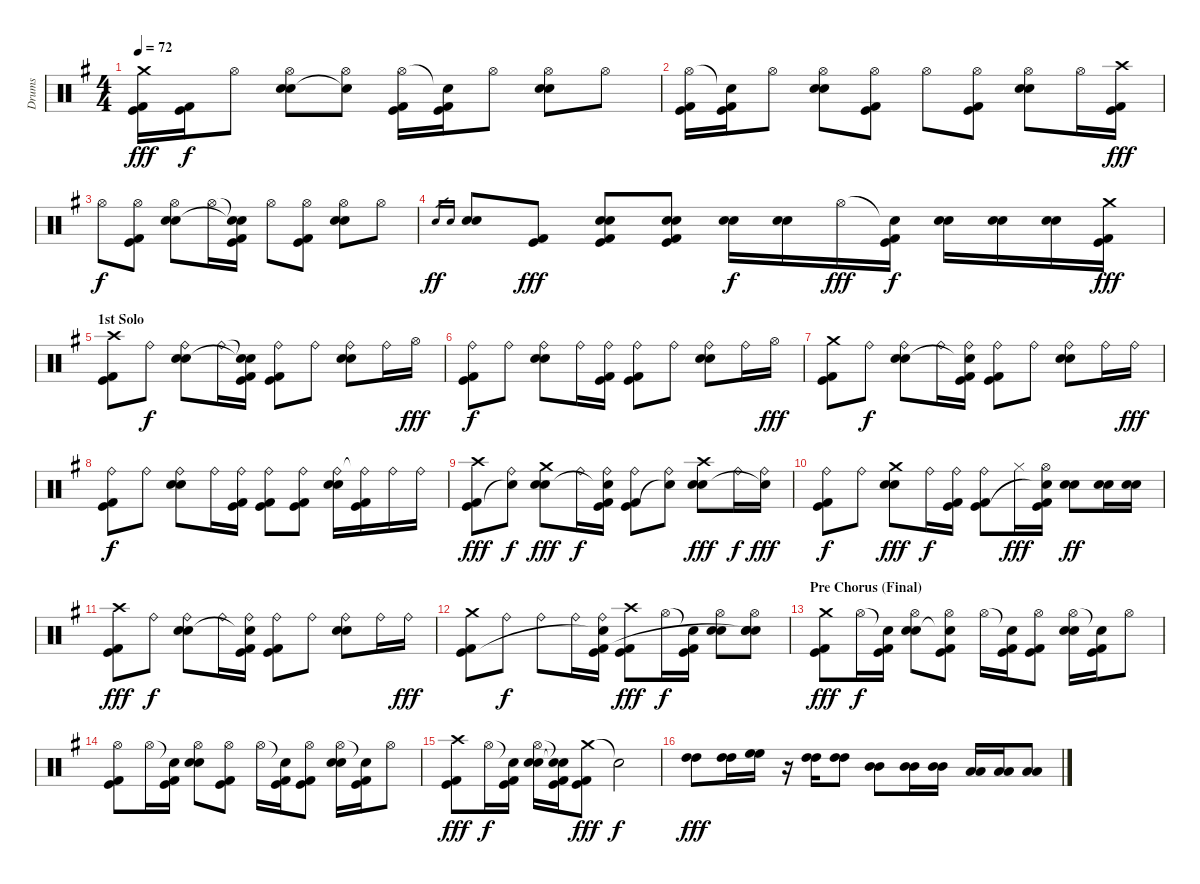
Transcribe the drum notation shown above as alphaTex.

\track ("Drums" "Drums") {instrument percussion}
\staff {score}
\articulation defaults
\ts (4 4)
\tempo 72
\clef neutral
\ks g
("Crash medium (hit)" "Kick (hit)" "Kick (hit) 2").16{dy fff} ("Kick (hit)" "Kick (hit) 2").16{dy f} "Hi-Hat (open)".8 ("Hi-Hat (open)" "Electric Snare (hit)" "Snare (hit) 2").8 ("Hi-Hat (open)" "Snare (hit)"{t}).8 ("Hi-Hat (open)" "Kick (hit)" "Kick (hit) 2").16 ("Snare (hit)"{t} "Kick (hit)" "Kick (hit) 2").16 "Hi-Hat (open)".8 ("Hi-Hat (open)" "Electric Snare (hit)" "Snare (hit) 2").8 "Hi-Hat (open)".8 |
("Hi-Hat (open)" "Kick (hit)" "Kick (hit) 2").16 ("Snare (hit)"{t} "Kick (hit)" "Kick (hit) 2").16 "Hi-Hat (open)".8 ("Hi-Hat (open)" "Electric Snare (hit)" "Snare (hit) 2").8 ("Hi-Hat (open)" "Kick (hit)" "Kick (hit) 2").8 "Hi-Hat (open)".8 ("Hi-Hat (open)" "Kick (hit)" "Kick (hit) 2").8 ("Hi-Hat (open)" "Electric Snare (hit)" "Snare (hit) 2").8 "Hi-Hat (open)".16 ("Crash high (hit)" "Kick (hit)" "Kick (hit) 2").16{dy fff} |
"Hi-Hat (open)".8{dy f} ("Hi-Hat (open)" "Kick (hit)" "Kick (hit) 2").8 ("Hi-Hat (open)" "Electric Snare (hit)" "Snare (hit) 2").8 "Hi-Hat (open)".16 ("Snare (hit)"{t} "Snare (hit)"{t} "Kick (hit)" "Kick (hit) 2").16 "Hi-Hat (open)".8 ("Hi-Hat (open)" "Kick (hit)" "Kick (hit) 2").8 ("Hi-Hat (open)" "Electric Snare (hit)" "Snare (hit) 2").8 "Hi-Hat (open)".8 |
"Electric Snare (hit)".16{gr dy ff} "Snare (hit) 2".16{gr} ("Electric Snare (hit)" "Snare (hit) 2").8 ("Kick (hit)" "Kick (hit) 2").8{dy fff} ("Electric Snare (hit)" "Snare (hit) 2" "Kick (hit)" "Kick (hit) 2").8 ("Electric Snare (hit)" "Snare (hit) 2" "Kick (hit)" "Kick (hit) 2").8 ("Electric Snare (hit)" "Snare (hit) 2").16{dy f} ("Electric Snare (hit)" "Snare (hit) 2").16 "Hi-Hat (open)".16{dy fff} ("Snare (hit)"{t} "Kick (hit)" "Kick (hit) 2").16{dy f} ("Electric Snare (hit)" "Snare (hit) 2").16 ("Electric Snare (hit)" "Snare (hit) 2").16 ("Electric Snare (hit)" "Snare (hit) 2").16 ("Crash medium (hit)" "Kick (hit)" "Kick (hit) 2").16{dy fff} |
\section ("" "1st Solo")
("Crash high (hit)" "Kick (hit)" "Kick (hit) 2").8 "Ride (bell)".8{dy f} ("Ride (bell)" "Electric Snare (hit)" "Snare (hit) 2").8 "Ride (bell)".16 ("Snare (hit)"{t} "Snare (hit)"{t} "Kick (hit)" "Kick (hit) 2").16 ("Ride (bell)" "Kick (hit)" "Kick (hit) 2").8 "Ride (bell)".8 ("Ride (bell)" "Electric Snare (hit)" "Snare (hit) 2").8 "Ride (bell)".16 "Hi-Hat (open)".16{dy fff} |
("Ride (bell)" "Kick (hit)" "Kick (hit) 2").8{dy f} "Ride (bell)".8 ("Ride (bell)" "Electric Snare (hit)" "Snare (hit) 2").8 "Ride (bell)".16 ("Ride (bell)" "Kick (hit)" "Kick (hit) 2").16 ("Ride (bell)" "Kick (hit)" "Kick (hit) 2").8 "Ride (bell)".8 ("Ride (bell)" "Electric Snare (hit)" "Snare (hit) 2").8 "Ride (bell)".16 "Hi-Hat (open)".16{dy fff} |
("Crash medium (hit)" "Kick (hit)" "Kick (hit) 2").8 "Ride (bell)".8{dy f} ("Ride (bell)" "Electric Snare (hit)" "Snare (hit) 2").8 "Ride (bell)".16 ("Ride (bell)" "Snare (hit)"{t} "Kick (hit)" "Kick (hit) 2").16 ("Ride (bell)" "Kick (hit)" "Kick (hit) 2").8 "Ride (bell)".8 ("Ride (bell)" "Electric Snare (hit)" "Snare (hit) 2").8 "Ride (bell)".16 "Ride (bell)".16{dy fff} |
("Ride (bell)" "Kick (hit)" "Kick (hit) 2").8{dy f} "Ride (bell)".8 ("Ride (bell)" "Electric Snare (hit)" "Snare (hit) 2").8 "Ride (bell)".16 ("Ride (bell)" "Kick (hit)" "Kick (hit) 2").16 ("Ride (bell)" "Kick (hit)" "Kick (hit) 2").8 ("Ride (bell)" "Kick (hit)" "Kick (hit) 2").8 ("Ride (bell)" "Electric Snare (hit)" "Snare (hit) 2").16 ("Ride (bell)"{t} "Kick (hit)" "Kick (hit) 2").16 "Ride (bell)".16 "Ride (bell)".16 |
("Crash high (hit)" "Kick (hit)" "Kick (hit) 2").8{dy fff} ("Ride (bell)" "Snare (hit)"{t}).8{dy f} ("Electric Snare (hit)" "Snare (hit) 2" "Crash medium (hit)").8{dy fff} "Ride (bell)".16{dy f} ("Ride (bell)" "Snare (hit)"{t} "Kick (hit)" "Kick (hit) 2").16 ("Ride (bell)" "Kick (hit)" "Kick (hit) 2").8 ("Ride (bell)" "Snare (hit)"{t}).8 ("Electric Snare (hit)" "Snare (hit) 2" "Crash high (hit)").8{dy fff} "Ride (bell)".16{dy f} ("Ride (bell)" "Snare (hit)"{t}).16{dy fff} |
("Ride (bell)" "Kick (hit)" "Kick (hit) 2").8{dy f} "Ride (bell)".8 ("Electric Snare (hit)" "Snare (hit) 2" "Crash medium (hit)").8{dy fff} "Ride (bell)".16{dy f} ("Ride (bell)" "Kick (hit)" "Kick (hit) 2").16 ("Ride (bell)" "Kick (hit)" "Kick (hit) 2").8 "Hi-Hat (closed)".16{dy fff} ("Hi-Hat (open)" "Snare (hit)"{t} "Kick (hit)" "Kick (hit) 2").16 ("Electric Snare (hit)" "Snare (hit) 2").8{dy ff} ("Electric Snare (hit)" "Snare (hit) 2").16 ("Electric Snare (hit)" "Snare (hit) 2").16 |
("Crash high (hit)" "Kick (hit)" "Kick (hit) 2").8{dy fff} "Ride (bell)".8{dy f} ("Ride (bell)" "Electric Snare (hit)" "Snare (hit) 2").8 "Ride (bell)".16 ("Ride (bell)" "Snare (hit)"{t} "Kick (hit)" "Kick (hit) 2").16 ("Ride (bell)" "Kick (hit)" "Kick (hit) 2").8 "Ride (bell)".8 ("Ride (bell)" "Electric Snare (hit)" "Snare (hit) 2").8 "Ride (bell)".16 "Ride (bell)".16{dy fff} |
("Crash medium (hit)" "Kick (hit)" "Kick (hit) 2").8 "Ride (bell)".8{dy f} "Ride (bell)".8 "Ride (bell)".16 ("Ride (bell)" "Snare (hit)"{t} "Kick (hit)" "Kick (hit) 2").16 ("Crash high (hit)" "Kick (hit)" "Kick (hit) 2").8{dy fff} "Hi-Hat (open)".16{dy f} ("Snare (hit)"{t} "Kick (hit)" "Kick (hit) 2").16 ("Hi-Hat (open)" "Electric Snare (hit)" "Snare (hit) 2").8 ("Hi-Hat (open)" "Electric Snare (hit)" "Snare (hit) 2" "Snare (hit)"{t}).8 |
\section ("" "Pre Chorus (Final)")
("Crash medium (hit)" "Kick (hit)" "Kick (hit) 2").8{dy fff} "Hi-Hat (open)".16{dy f} ("Snare (hit)"{t} "Kick (hit)" "Kick (hit) 2").16 ("Hi-Hat (open)" "Electric Snare (hit)" "Snare (hit) 2").8 ("Hi-Hat (open)" "Snare (hit)"{t} "Kick (hit)" "Kick (hit) 2").8 "Hi-Hat (open)".16 ("Snare (hit)"{t} "Kick (hit)" "Kick (hit) 2").16 ("Hi-Hat (open)" "Kick (hit)" "Kick (hit) 2").8 ("Hi-Hat (open)" "Electric Snare (hit)" "Snare (hit) 2").16 ("Snare (hit)"{t} "Kick (hit)" "Kick (hit) 2").16 "Hi-Hat (open)".8 |
("Hi-Hat (open)" "Kick (hit)" "Kick (hit) 2").8 "Hi-Hat (open)".16 ("Snare (hit)"{t} "Kick (hit)" "Kick (hit) 2").16 ("Hi-Hat (open)" "Electric Snare (hit)" "Snare (hit) 2").8 ("Hi-Hat (open)" "Kick (hit)" "Kick (hit) 2").8 "Hi-Hat (open)".16 ("Snare (hit)"{t} "Kick (hit)" "Kick (hit) 2").16 ("Hi-Hat (open)" "Kick (hit)" "Kick (hit) 2").8 ("Hi-Hat (open)" "Electric Snare (hit)" "Snare (hit) 2").16 ("Snare (hit)"{t} "Kick (hit)" "Kick (hit) 2").16 "Hi-Hat (open)".8 |
("Crash high (hit)" "Kick (hit)" "Kick (hit) 2").8{dy fff} "Hi-Hat (open)".16{dy f} ("Snare (hit)"{t} "Kick (hit)" "Kick (hit) 2").16 ("Hi-Hat (open)" "Electric Snare (hit)" "Snare (hit) 2").16 ("Snare (hit)"{t} "Snare (hit)"{t} "Kick (hit)" "Kick (hit) 2").16 ("Crash medium (hit)" "Kick (hit)" "Kick (hit) 2").8{dy fff} "Snare (hit)"{t}.2{dy f} |
("High Tom (hit)" "High Tom (hit)").8{dy fff} ("High Tom (hit)" "High Tom (hit)").16 ("High Floor Tom (hit)" "High Floor Tom (hit)").16 r.16 ("High Tom (hit)" "High Tom (hit)").16 ("High Tom (hit)" "High Tom (hit)").8 ("Mid Tom (hit)" "Mid Tom (hit)").8 ("Mid Tom (hit)" "Mid Tom (hit)").16 ("Mid Tom (hit)" "Mid Tom (hit)").16 ("Low Tom (hit)" "Low Tom (hit)").16 ("Low Tom (hit)" "Low Tom (hit)").16 ("Low Tom (hit)" "Low Tom (hit)").8
